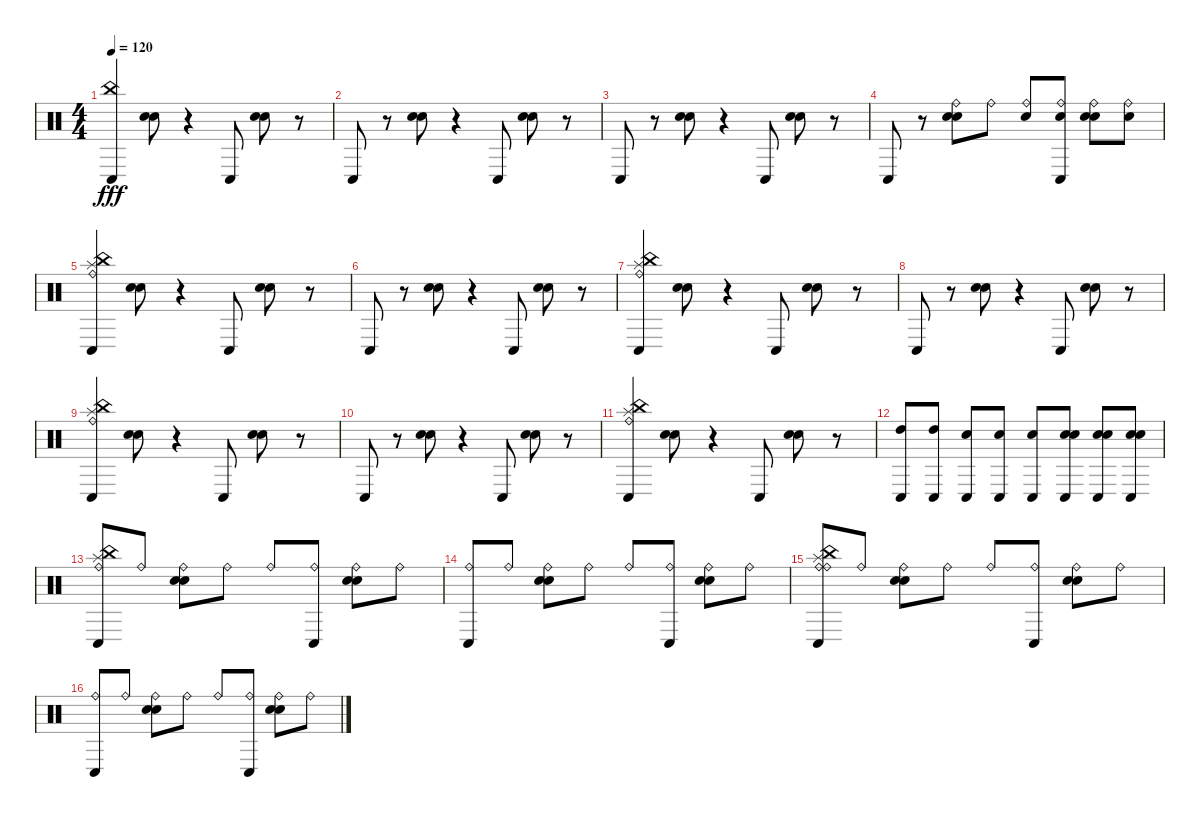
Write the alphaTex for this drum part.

\track "" {instrument percussion}
\staff {score}
\articulation defaults
\ts (4 4)
\tempo 120
\clef neutral
\ks c
("Conga low (hit)" "China (hit)").4{dy fff} ("Snare (hit) 2" "Electric Snare (hit)").8 r.4 "Conga low (hit)".8 ("Electric Snare (hit)" "Snare (hit) 2").8 r.8 |
"Conga low (hit)".8 r.8 ("Electric Snare (hit)" "Snare (hit) 2").8 r.4 "Conga low (hit)".8 ("Electric Snare (hit)" "Snare (hit) 2").8 r.8 |
"Conga low (hit)".8 r.8 ("Electric Snare (hit)" "Snare (hit) 2").8 r.4 "Conga low (hit)".8 ("Electric Snare (hit)" "Snare (hit) 2").8 r.8 |
"Conga low (hit)".8 r.8 ("Electric Snare (hit)" "Snare (hit) 2" "Ride (bell)").8 "Ride (bell)".8 ("Ride (bell)" "Electric Snare (hit)").8 ("Conga low (hit)" "Ride (bell)" "Electric Snare (hit)").8 ("Electric Snare (hit)" "Snare (hit) 2" "Ride (bell)").8 ("Ride (bell)" "Electric Snare (hit)").8 |
("Conga low (hit)" "Splash (hit)" "Ride (bell)" "China (hit)").4 ("Electric Snare (hit)" "Snare (hit) 2").8 r.4 "Conga low (hit)".8 ("Electric Snare (hit)" "Snare (hit) 2").8 r.8 |
"Conga low (hit)".8 r.8 ("Electric Snare (hit)" "Snare (hit) 2").8 r.4 "Conga low (hit)".8 ("Electric Snare (hit)" "Snare (hit) 2").8 r.8 |
("Conga low (hit)" "Splash (hit)" "Ride (bell)" "China (hit)").4 ("Electric Snare (hit)" "Snare (hit) 2").8 r.4 "Conga low (hit)".8 ("Electric Snare (hit)" "Snare (hit) 2").8 r.8 |
"Conga low (hit)".8 r.8 ("Electric Snare (hit)" "Snare (hit) 2").8 r.4 "Conga low (hit)".8 ("Electric Snare (hit)" "Snare (hit) 2").8 r.8 |
("Conga low (hit)" "Splash (hit)" "Ride (bell)" "China (hit)").4 ("Electric Snare (hit)" "Snare (hit) 2").8 r.4 "Conga low (hit)".8 ("Electric Snare (hit)" "Snare (hit) 2").8 r.8 |
"Conga low (hit)".8 r.8 ("Electric Snare (hit)" "Snare (hit) 2").8 r.4 "Conga low (hit)".8 ("Electric Snare (hit)" "Snare (hit) 2").8 r.8 |
("Conga low (hit)" "Splash (hit)" "Ride (bell)" "China (hit)").4 ("Electric Snare (hit)" "Snare (hit) 2").8 r.4 "Conga low (hit)".8 ("Electric Snare (hit)" "Snare (hit) 2").8 r.8 |
("Conga low (hit)" "High Tom (hit)").8 ("Conga low (hit)" "High Tom (hit)").8 ("Conga low (hit)" "Electric Snare (hit)").8 ("Conga low (hit)" "Electric Snare (hit)").8 ("Conga low (hit)" "Electric Snare (hit)").8 ("Conga low (hit)" "Electric Snare (hit)" "Snare (hit) 2").8 ("Conga low (hit)" "Electric Snare (hit)" "Snare (hit) 2").8 ("Conga low (hit)" "Electric Snare (hit)" "Snare (hit) 2").8 |
("Conga low (hit)" "Splash (hit)" "China (hit)" "Ride (bell)").8 "Ride (bell)".8 ("Electric Snare (hit)" "Snare (hit) 2" "Ride (bell)").8 "Ride (bell)".8 "Ride (bell)".8 ("Conga low (hit)" "Ride (bell)").8 ("Electric Snare (hit)" "Snare (hit) 2" "Ride (bell)").8 "Ride (bell)".8 |
("Conga low (hit)" "Ride (bell)").8 "Ride (bell)".8 ("Electric Snare (hit)" "Snare (hit) 2" "Ride (bell)").8 "Ride (bell)".8 "Ride (bell)".8 ("Conga low (hit)" "Ride (bell)").8 ("Electric Snare (hit)" "Snare (hit) 2" "Ride (bell)").8 "Ride (bell)".8 |
("Conga low (hit)" "Splash (hit)" "Ride (bell)" "China (hit)" "Ride (bell)").8 "Ride (bell)".8 ("Electric Snare (hit)" "Snare (hit) 2" "Ride (bell)").8 "Ride (bell)".8 "Ride (bell)".8 ("Conga low (hit)" "Ride (bell)").8 ("Electric Snare (hit)" "Snare (hit) 2" "Ride (bell)").8 "Ride (bell)".8 |
("Conga low (hit)" "Ride (bell)").8 "Ride (bell)".8 ("Electric Snare (hit)" "Snare (hit) 2" "Ride (bell)").8 "Ride (bell)".8 "Ride (bell)".8 ("Conga low (hit)" "Ride (bell)").8 ("Electric Snare (hit)" "Snare (hit) 2" "Ride (bell)").8 "Ride (bell)".8
